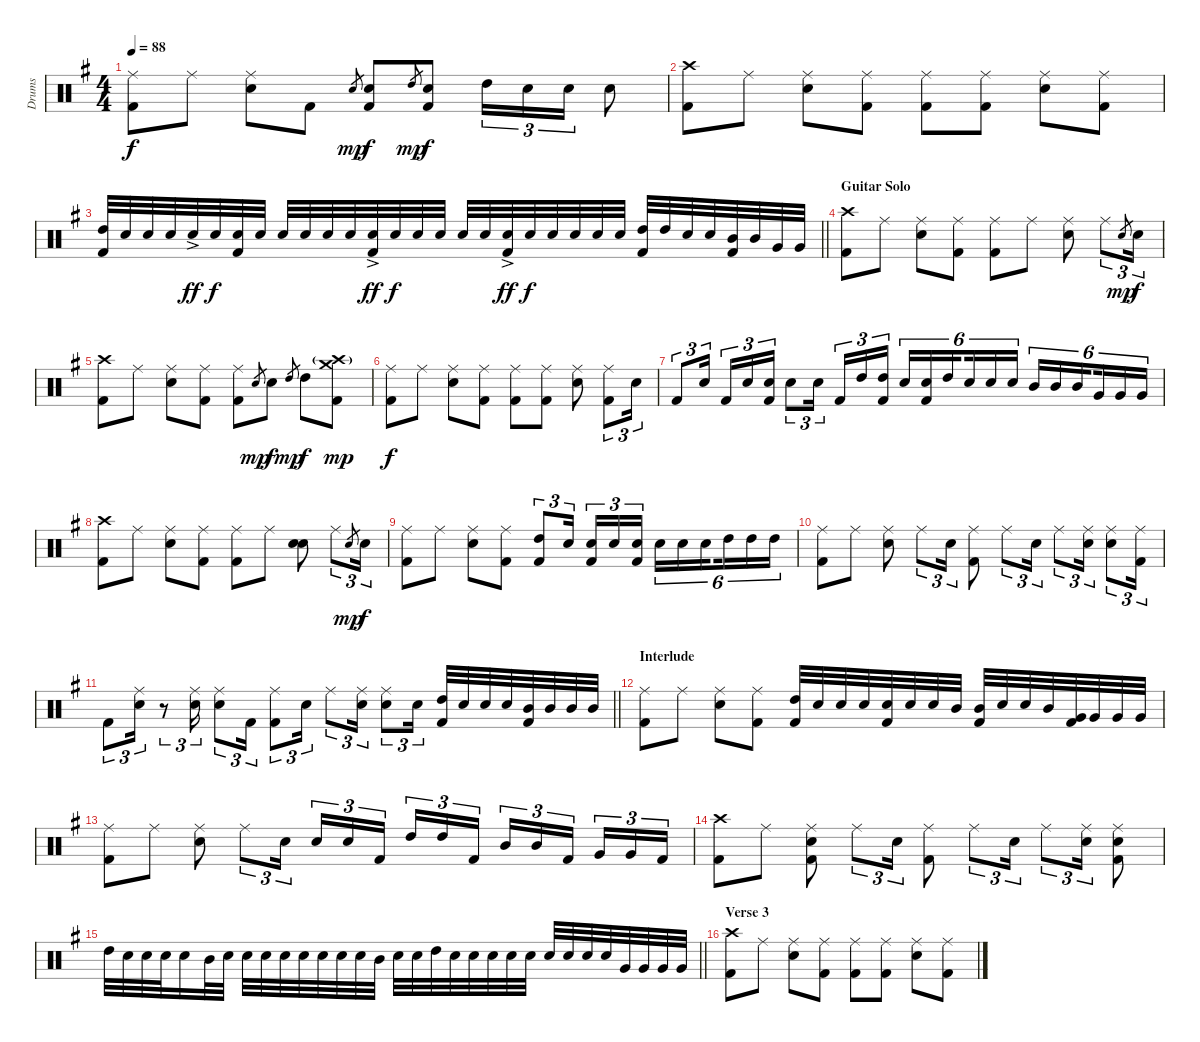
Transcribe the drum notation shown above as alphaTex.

\track ("Drums" "Drums") {instrument percussion}
\staff {score}
\articulation defaults
\ts (4 4)
\tempo 88
\clef neutral
\ks g
("Ride (middle)" "Kick (hit) 2").8{dy f} "Ride (middle)".8 ("Ride (middle)" "Electric Snare (hit)").8 "Kick (hit) 2".8 "Electric Snare (hit)".8{gr dy mp} ("Electric Snare (hit)" "Kick (hit) 2").8{dy f} "High Tom (hit)".8{gr dy mp} ("Electric Snare (hit)" "Kick (hit) 2").8{dy f} "High Tom (hit)".16{tu (3 2)} "Electric Snare (hit)".16{tu (3 2)} "Electric Snare (hit)".16{tu (3 2)} "Electric Snare (hit)".8 |
("Crash high (hit)" "Kick (hit) 2").8 "Ride (middle)".8 ("Ride (middle)" "Electric Snare (hit)").8 ("Ride (middle)" "Kick (hit) 2").8 ("Ride (middle)" "Kick (hit) 2").8 ("Ride (middle)" "Kick (hit) 2").8 ("Ride (middle)" "Electric Snare (hit)").8 ("Ride (middle)" "Kick (hit) 2").8 |
\barLineRight lightlight
("High Tom (hit)" "Kick (hit) 2").32 "Electric Snare (hit)".32 "Electric Snare (hit)".32 "Electric Snare (hit)".32 "Electric Snare (hit)"{ac}.32{dy ff} "Electric Snare (hit)".32{dy f} ("Electric Snare (hit)" "Kick (hit) 2").32 "Electric Snare (hit)".32 "Electric Snare (hit)".32 "Electric Snare (hit)".32 "Electric Snare (hit)".32 "Electric Snare (hit)".32 ("Electric Snare (hit)"{ac} "Kick (hit) 2").32{dy ff} "Electric Snare (hit)".32{dy f} "Electric Snare (hit)".32 "Electric Snare (hit)".32 "Electric Snare (hit)".32 "Electric Snare (hit)".32 ("Electric Snare (hit)"{ac} "Kick (hit) 2").32{dy ff} "Electric Snare (hit)".32{dy f} "Electric Snare (hit)".32 "Electric Snare (hit)".32 "Electric Snare (hit)".32 "Electric Snare (hit)".32 ("High Tom (hit)" "Kick (hit) 2").32 "High Tom (hit)".32 "Electric Snare (hit)".32 "Electric Snare (hit)".32 ("Mid Tom (hit)" "Kick (hit) 2").32 "Mid Tom (hit)".32 "Very Low Tom (hit)".32 "Very Low Tom (hit)".32 |
\section ("" "Guitar Solo")
("Crash high (hit)" "Kick (hit) 2").8 "Ride (middle)".8 ("Ride (middle)" "Electric Snare (hit)").8 ("Ride (middle)" "Kick (hit) 2").8 ("Ride (middle)" "Kick (hit) 2").8 "Ride (middle)".8 ("Ride (middle)" "Electric Snare (hit)").8 "Ride (middle)".8{tu (3 2)} "Electric Snare (hit)".8{gr dy mp} "Electric Snare (hit)".16{tu (3 2) dy f} |
("Crash high (hit)" "Kick (hit) 2").8 "Ride (middle)".8 ("Ride (middle)" "Electric Snare (hit)").8 ("Ride (middle)" "Kick (hit) 2").8 ("Ride (middle)" "Kick (hit) 2").8 "Electric Snare (hit)".8{gr dy mp} "Electric Snare (hit)".8{dy f} "High Tom (hit)".8{gr dy mp} "High Tom (hit)".8{dy f} ("Crash medium (hit)" "Crash high (hit)"{g} "Kick (hit) 2").8{dy mp} |
("Ride (middle)" "Kick (hit) 2").8{dy f} "Ride (middle)".8 ("Ride (middle)" "Electric Snare (hit)").8 ("Ride (middle)" "Kick (hit) 2").8 ("Ride (middle)" "Kick (hit) 2").8 ("Ride (middle)" "Kick (hit) 2").8 ("Ride (middle)" "Electric Snare (hit)").8 ("Ride (middle)" "Kick (hit) 2").8{tu (3 2)} "Electric Snare (hit)".16{tu (3 2)} |
"Kick (hit) 2".8{tu (3 2)} "Electric Snare (hit)".16{tu (3 2) beam splitsecondary} "Kick (hit) 2".16{tu (3 2)} "Electric Snare (hit)".16{tu (3 2)} ("Electric Snare (hit)" "Kick (hit) 2").16{tu (3 2)} "Electric Snare (hit)".8{tu (3 2)} "Electric Snare (hit)".16{tu (3 2) beam splitsecondary} "Kick (hit) 2".16{tu (3 2)} "High Tom (hit)".16{tu (3 2)} ("High Tom (hit)" "Kick (hit) 2").16{tu (3 2)} "Electric Snare (hit)".16{tu (6 4)} ("Electric Snare (hit)" "Kick (hit) 2").16{tu (6 4)} "High Tom (hit)".16{tu (6 4) beam splitsecondary} "Electric Snare (hit)".16{tu (6 4)} "Electric Snare (hit)".16{tu (6 4)} "Electric Snare (hit)".16{tu (6 4)} "Mid Tom (hit)".16{tu (6 4)} "Mid Tom (hit)".16{tu (6 4)} "Mid Tom (hit)".16{tu (6 4) beam splitsecondary} "Very Low Tom (hit)".16{tu (6 4)} "Very Low Tom (hit)".16{tu (6 4)} "Very Low Tom (hit)".16{tu (6 4)} |
("Crash high (hit)" "Kick (hit) 2").8 "Ride (middle)".8 ("Ride (middle)" "Electric Snare (hit)").8 ("Ride (middle)" "Kick (hit) 2").8 ("Ride (middle)" "Kick (hit) 2").8 "Ride (middle)".8 ("Snare (hit)" "Electric Snare (hit)").8 "Ride (middle)".8{tu (3 2)} "Electric Snare (hit)".8{gr dy mp} "Electric Snare (hit)".16{tu (3 2) dy f} |
("Ride (middle)" "Kick (hit) 2").8 "Ride (middle)".8 ("Ride (middle)" "Electric Snare (hit)").8 ("Ride (middle)" "Kick (hit) 2").8 ("High Tom (hit)" "Kick (hit) 2").8{tu (3 2)} "Electric Snare (hit)".16{tu (3 2) beam splitsecondary} ("Electric Snare (hit)" "Kick (hit) 2").16{tu (3 2)} "Electric Snare (hit)".16{tu (3 2)} ("Electric Snare (hit)" "Kick (hit) 2").16{tu (3 2)} "Electric Snare (hit)".16{tu (6 4)} "Electric Snare (hit)".16{tu (6 4)} "Electric Snare (hit)".16{tu (6 4) beam splitsecondary} "High Tom (hit)".16{tu (6 4)} "High Tom (hit)".16{tu (6 4)} "High Tom (hit)".16{tu (6 4)} |
("Ride (middle)" "Kick (hit) 2").8 "Ride (middle)".8 ("Ride (middle)" "Electric Snare (hit)").8 "Ride (middle)".8{tu (3 2)} "Electric Snare (hit)".16{tu (3 2)} ("Ride (middle)" "Kick (hit) 2").8 "Ride (middle)".8{tu (3 2)} "Electric Snare (hit)".16{tu (3 2)} "Ride (middle)".8{tu (3 2)} ("Ride (middle)" "Electric Snare (hit)").16{tu (3 2)} ("Ride (middle)" "Electric Snare (hit)").8{tu (3 2)} ("Ride (middle)" "Kick (hit) 2").16{tu (3 2)} |
\barLineRight lightlight "Kick (hit) 2".8{tu (3 2)}
("Ride (middle)" "Electric Snare (hit)").16{tu (3 2)} r.8{tu (3 2)} ("Ride (middle)" "Electric Snare (hit)").16{tu (3 2)} ("Ride (middle)" "Electric Snare (hit)").8{tu (3 2)} "Kick (hit) 2".16{tu (3 2)} ("Ride (middle)" "Kick (hit) 2").8{tu (3 2)} "Electric Snare (hit)".16{tu (3 2)} "Ride (middle)".8{tu (3 2)} ("Ride (middle)" "Electric Snare (hit)").16{tu (3 2)} ("Ride (middle)" "Electric Snare (hit)").8{tu (3 2)} "Electric Snare (hit)".16{tu (3 2)} ("High Tom (hit)" "Kick (hit) 2").32 "Electric Snare (hit)".32 "Electric Snare (hit)".32 "Electric Snare (hit)".32 ("Mid Tom (hit)" "Kick (hit) 2").32 "Mid Tom (hit)".32 "Mid Tom (hit)".32 "Mid Tom (hit)".32 |
\section ("" "Interlude")
("Ride (middle)" "Kick (hit) 2").8 "Ride (middle)".8 ("Ride (middle)" "Electric Snare (hit)").8 ("Ride (middle)" "Kick (hit) 2").8 ("High Tom (hit)" "Kick (hit) 2").32 "Electric Snare (hit)".32 "Electric Snare (hit)".32 "Electric Snare (hit)".32 ("Electric Snare (hit)" "Kick (hit) 2").32 "Electric Snare (hit)".32 "Electric Snare (hit)".32 "Mid Tom (hit)".32 ("Mid Tom (hit)" "Kick (hit) 2").32 "Electric Snare (hit)".32 "Electric Snare (hit)".32 "Mid Tom (hit)".32 ("Very Low Tom (hit)" "Kick (hit) 2").32 "Very Low Tom (hit)".32 "Very Low Tom (hit)".32 "Very Low Tom (hit)".32 |
("Ride (middle)" "Kick (hit) 2").8 "Ride (middle)".8 ("Ride (middle)" "Electric Snare (hit)").8 "Ride (middle)".8{tu (3 2)} "Electric Snare (hit)".16{tu (3 2)} "Electric Snare (hit)".16{tu (3 2)} "Electric Snare (hit)".16{tu (3 2)} "Kick (hit) 2".16{tu (3 2) beam splitsecondary} "High Tom (hit)".16{tu (3 2)} "High Tom (hit)".16{tu (3 2)} "Kick (hit) 2".16{tu (3 2)} "Mid Tom (hit)".16{tu (3 2)} "Mid Tom (hit)".16{tu (3 2)} "Kick (hit) 2".16{tu (3 2) beam splitsecondary} "Very Low Tom (hit)".16{tu (3 2)} "Very Low Tom (hit)".16{tu (3 2)} "Kick (hit) 2".16{tu (3 2)} |
("Crash high (hit)" "Kick (hit) 2").8 "Ride (middle)".8 ("Ride (middle)" "Electric Snare (hit)" "Kick (hit) 2").8 "Ride (middle)".8{tu (3 2)} "Electric Snare (hit)".16{tu (3 2)} ("Ride (middle)" "Kick (hit) 2").8 "Ride (middle)".8{tu (3 2)} "Electric Snare (hit)".16{tu (3 2)} "Ride (middle)".8{tu (3 2)} ("Ride (middle)" "Electric Snare (hit)").16{tu (3 2)} ("Ride (middle)" "Electric Snare (hit)" "Kick (hit) 2").8 |
\barLineRight lightlight "High Tom (hit)".32 "Electric Snare (hit)".32 "Electric Snare (hit)".32 "Electric Snare (hit)".32 "Electric Snare (hit)".16 "Mid Tom (hit)".32 "Electric Snare (hit)".32 "Electric Snare (hit)".32 "Electric Snare (hit)".32 "Electric Snare (hit)".32 "Electric Snare (hit)".32 "Electric Snare (hit)".32 "Electric Snare (hit)".32 "Electric Snare (hit)".32 "Mid Tom (hit)".32 "Electric Snare (hit)".32 "Electric Snare (hit)".32 "High Tom (hit)".32 "Electric Snare (hit)".32 "Electric Snare (hit)".32 "Electric Snare (hit)".32 "Electric Snare (hit)".32 "Electric Snare (hit)".32 "Electric Snare (hit)".32 "Electric Snare (hit)".32 "Electric Snare (hit)".32 "Electric Snare (hit)".32 "Very Low Tom (hit)".32 "Very Low Tom (hit)".32 "Very Low Tom (hit)".32 "Very Low Tom (hit)".32
|
\section ("" "Verse 3")
("Crash high (hit)" "Kick (hit) 2").8 "Ride (middle)".8 ("Ride (middle)" "Electric Snare (hit)").8 ("Ride (middle)" "Kick (hit) 2").8 ("Ride (middle)" "Kick (hit) 2").8 ("Ride (middle)" "Kick (hit) 2").8 ("Ride (middle)" "Electric Snare (hit)").8 ("Ride (middle)" "Kick (hit) 2").8
